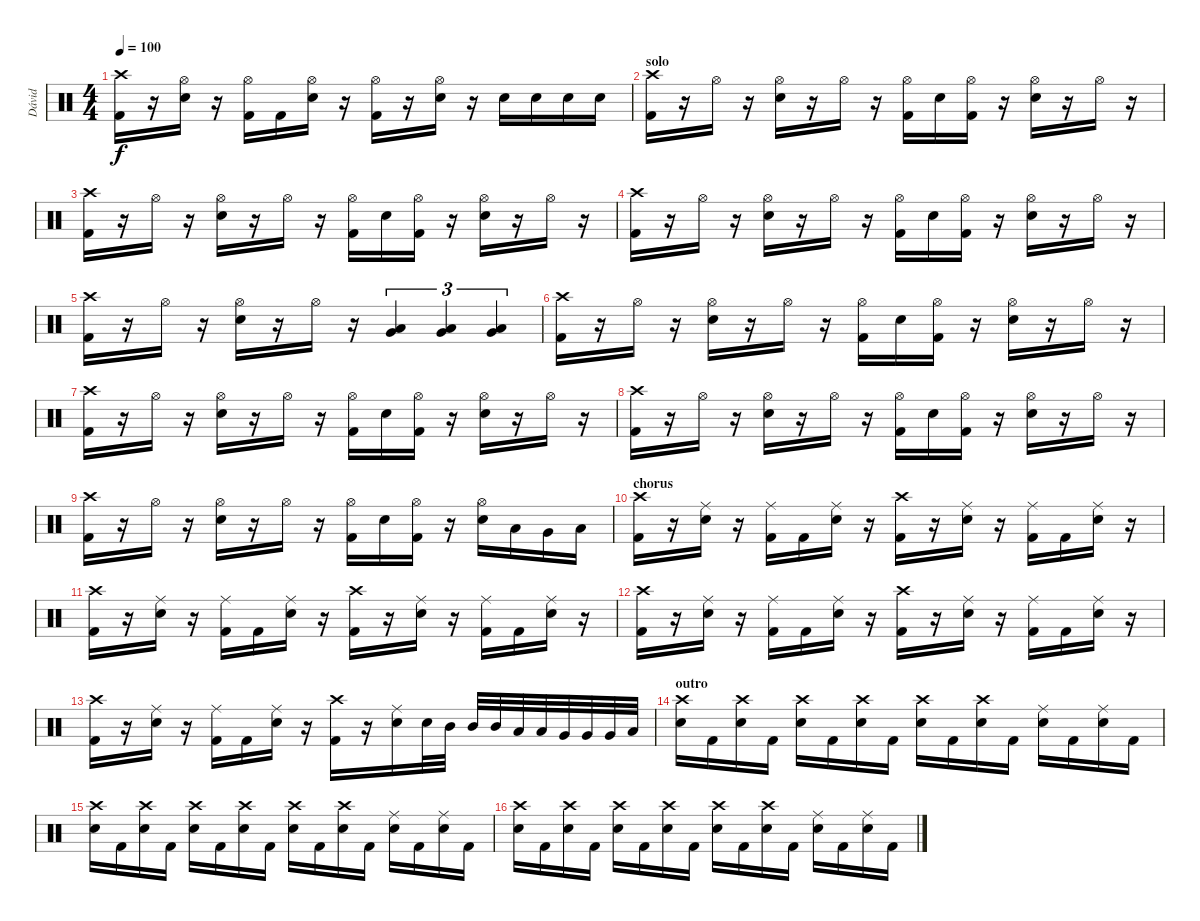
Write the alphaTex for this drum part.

\track ("Dávid" "Dávid") {instrument percussion}
\staff {score}
\articulation defaults
\ts (4 4)
\tempo 100
\clef neutral
\ks c
("Crash high (hit)" "Kick (hit) 2").16{dy f} r.16 ("Hi-Hat (open)" "Snare (hit) 2").16 r.16 ("Hi-Hat (open)" "Kick (hit) 2").16 "Kick (hit) 2".16 ("Hi-Hat (open)" "Snare (hit) 2").16 r.16 ("Hi-Hat (open)" "Kick (hit) 2").16 r.16 ("Hi-Hat (open)" "Snare (hit) 2").16 r.16 "Snare (hit) 2".16 "Snare (hit) 2".16 "Snare (hit) 2".16 "Snare (hit) 2".16 |
\section ("" "solo")
("Crash high (hit)" "Kick (hit) 2").16 r.16 "Hi-Hat (open)".16 r.16 ("Hi-Hat (open)" "Snare (hit) 2").16 r.16 "Hi-Hat (open)".16 r.16 ("Hi-Hat (open)" "Kick (hit) 2").16 "Snare (hit) 2".16 ("Hi-Hat (open)" "Kick (hit) 2").16 r.16 ("Hi-Hat (open)" "Snare (hit) 2").16 r.16 "Hi-Hat (open)".16 r.16 |
("Crash high (hit)" "Kick (hit) 2").16 r.16 "Hi-Hat (open)".16 r.16 ("Hi-Hat (open)" "Snare (hit) 2").16 r.16 "Hi-Hat (open)".16 r.16 ("Hi-Hat (open)" "Kick (hit) 2").16 "Snare (hit) 2".16 ("Hi-Hat (open)" "Kick (hit) 2").16 r.16 ("Hi-Hat (open)" "Snare (hit) 2").16 r.16 "Hi-Hat (open)".16 r.16 |
("Crash high (hit)" "Kick (hit) 2").16 r.16 "Hi-Hat (open)".16 r.16 ("Hi-Hat (open)" "Snare (hit) 2").16 r.16 "Hi-Hat (open)".16 r.16 ("Hi-Hat (open)" "Kick (hit) 2").16 "Snare (hit) 2".16 ("Hi-Hat (open)" "Kick (hit) 2").16 r.16 ("Hi-Hat (open)" "Snare (hit) 2").16 r.16 "Hi-Hat (open)".16 r.16 |
("Crash high (hit)" "Kick (hit) 2").16 r.16 "Hi-Hat (open)".16 r.16 ("Hi-Hat (open)" "Snare (hit) 2").16 r.16 "Hi-Hat (open)".16 r.16 ("Low Tom (hit)" "Very Low Tom (hit)").4{tu (3 2)} ("Low Tom (hit)" "Very Low Tom (hit)").4{tu (3 2)} ("Low Tom (hit)" "Very Low Tom (hit)").4{tu (3 2)} |
("Crash high (hit)" "Kick (hit) 2").16 r.16 "Hi-Hat (open)".16 r.16 ("Hi-Hat (open)" "Snare (hit) 2").16 r.16 "Hi-Hat (open)".16 r.16 ("Hi-Hat (open)" "Kick (hit) 2").16 "Snare (hit) 2".16 ("Hi-Hat (open)" "Kick (hit) 2").16 r.16 ("Hi-Hat (open)" "Snare (hit) 2").16 r.16 "Hi-Hat (open)".16 r.16 |
("Crash high (hit)" "Kick (hit) 2").16 r.16 "Hi-Hat (open)".16 r.16 ("Hi-Hat (open)" "Snare (hit) 2").16 r.16 "Hi-Hat (open)".16 r.16 ("Hi-Hat (open)" "Kick (hit) 2").16 "Snare (hit) 2".16 ("Hi-Hat (open)" "Kick (hit) 2").16 r.16 ("Hi-Hat (open)" "Snare (hit) 2").16 r.16 "Hi-Hat (open)".16 r.16 |
("Crash high (hit)" "Kick (hit) 2").16 r.16 "Hi-Hat (open)".16 r.16 ("Hi-Hat (open)" "Snare (hit) 2").16 r.16 "Hi-Hat (open)".16 r.16 ("Hi-Hat (open)" "Kick (hit) 2").16 "Snare (hit) 2".16 ("Hi-Hat (open)" "Kick (hit) 2").16 r.16 ("Hi-Hat (open)" "Snare (hit) 2").16 r.16 "Hi-Hat (open)".16 r.16 |
("Crash high (hit)" "Kick (hit) 2").16 r.16 "Hi-Hat (open)".16 r.16 ("Hi-Hat (open)" "Snare (hit) 2").16 r.16 "Hi-Hat (open)".16 r.16 ("Hi-Hat (open)" "Kick (hit) 2").16 "Snare (hit) 2".16 ("Hi-Hat (open)" "Kick (hit) 2").16 r.16 ("Hi-Hat (open)" "Snare (hit) 2").16 "Low Tom (hit)".16 "Very Low Tom (hit)".16 "Low Floor Tom (hit)".16 |
\section ("" "chorus")
("Crash high (hit)" "Kick (hit) 2").16 r.16 ("Ride (middle)" "Snare (hit) 2").16 r.16 ("Ride (middle)" "Kick (hit) 2").16 "Kick (hit) 2".16 ("Ride (middle)" "Snare (hit) 2").16 r.16 ("Crash high (hit)" "Kick (hit) 2").16 r.16 ("Ride (middle)" "Snare (hit) 2").16 r.16 ("Ride (middle)" "Kick (hit) 2").16 "Kick (hit) 2".16 ("Ride (middle)" "Snare (hit) 2").16 r.16 |
("Crash high (hit)" "Kick (hit) 2").16 r.16 ("Ride (middle)" "Snare (hit) 2").16 r.16 ("Ride (middle)" "Kick (hit) 2").16 "Kick (hit) 2".16 ("Ride (middle)" "Snare (hit) 2").16 r.16 ("Crash high (hit)" "Kick (hit) 2").16 r.16 ("Ride (middle)" "Snare (hit) 2").16 r.16 ("Ride (middle)" "Kick (hit) 2").16 "Kick (hit) 2".16 ("Ride (middle)" "Snare (hit) 2").16 r.16 |
("Crash high (hit)" "Kick (hit) 2").16 r.16 ("Ride (middle)" "Snare (hit) 2").16 r.16 ("Ride (middle)" "Kick (hit) 2").16 "Kick (hit) 2".16 ("Ride (middle)" "Snare (hit) 2").16 r.16 ("Crash high (hit)" "Kick (hit) 2").16 r.16 ("Ride (middle)" "Snare (hit) 2").16 r.16 ("Ride (middle)" "Kick (hit) 2").16 "Kick (hit) 2".16 ("Ride (middle)" "Snare (hit) 2").16 r.16 |
("Crash high (hit)" "Kick (hit) 2").16 r.16 ("Ride (middle)" "Snare (hit) 2").16 r.16 ("Ride (middle)" "Kick (hit) 2").16 "Kick (hit) 2".16 ("Ride (middle)" "Snare (hit) 2").16 r.16 ("Crash high (hit)" "Kick (hit) 2").16 r.16 ("Ride (middle)" "Snare (hit) 2").16 "Snare (hit) 2".32 "Mid Tom (hit)".32 "Mid Tom (hit)".32 "Mid Tom (hit)".32 "Low Tom (hit)".32 "Low Tom (hit)".32 "Very Low Tom (hit)".32 "Very Low Tom (hit)".32 "Very Low Tom (hit)".32 "Low Floor Tom (hit)".32 |
\section ("" "outro")
("Crash high (hit)" "Snare (hit) 2").16 "Kick (hit) 2".16 ("Crash high (hit)" "Snare (hit) 2").16 "Kick (hit) 2".16 ("Crash high (hit)" "Snare (hit) 2").16 "Kick (hit) 2".16 ("Crash high (hit)" "Snare (hit) 2").16 "Kick (hit) 2".16 ("Crash high (hit)" "Snare (hit) 2").16 "Kick (hit) 2".16 ("Crash high (hit)" "Snare (hit) 2").16 "Kick (hit) 2".16 ("Ride (middle)" "Snare (hit) 2").16 "Kick (hit) 2".16 ("Ride (middle)" "Snare (hit) 2").16 "Kick (hit) 2".16 |
("Crash high (hit)" "Snare (hit) 2").16 "Kick (hit) 2".16 ("Crash high (hit)" "Snare (hit) 2").16 "Kick (hit) 2".16 ("Crash high (hit)" "Snare (hit) 2").16 "Kick (hit) 2".16 ("Crash high (hit)" "Snare (hit) 2").16 "Kick (hit) 2".16 ("Crash high (hit)" "Snare (hit) 2").16 "Kick (hit) 2".16 ("Crash high (hit)" "Snare (hit) 2").16 "Kick (hit) 2".16 ("Ride (middle)" "Snare (hit) 2").16 "Kick (hit) 2".16 ("Ride (middle)" "Snare (hit) 2").16 "Kick (hit) 2".16 |
("Crash high (hit)" "Snare (hit) 2").16 "Kick (hit) 2".16 ("Crash high (hit)" "Snare (hit) 2").16 "Kick (hit) 2".16 ("Crash high (hit)" "Snare (hit) 2").16 "Kick (hit) 2".16 ("Crash high (hit)" "Snare (hit) 2").16 "Kick (hit) 2".16 ("Crash high (hit)" "Snare (hit) 2").16 "Kick (hit) 2".16 ("Crash high (hit)" "Snare (hit) 2").16 "Kick (hit) 2".16 ("Ride (middle)" "Snare (hit) 2").16 "Kick (hit) 2".16 ("Ride (middle)" "Snare (hit) 2").16 "Kick (hit) 2".16
